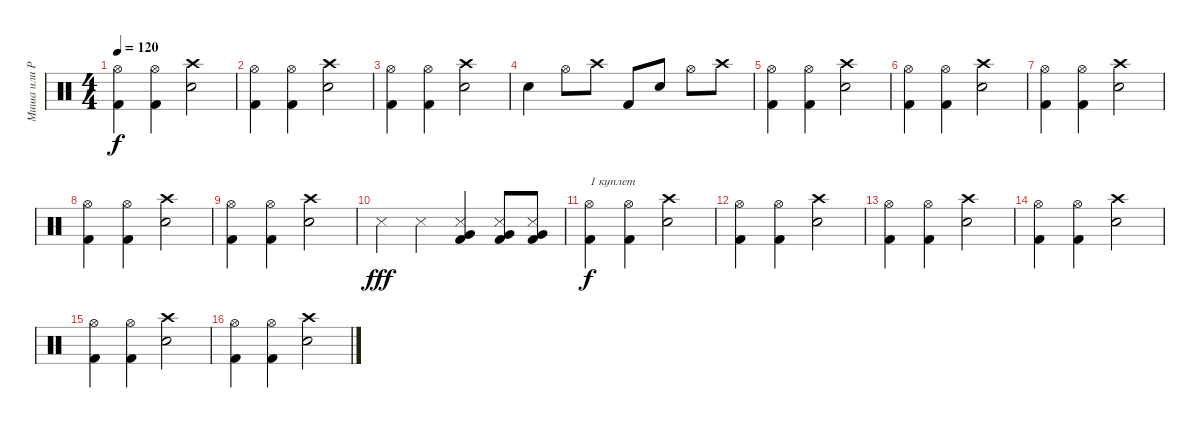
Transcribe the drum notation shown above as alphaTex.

\track ("Миша или Рома" "Миша или Р") {instrument percussion}
\staff {score}
\articulation defaults
\ts (4 4)
\tempo 120
\clef neutral
\ks c
("Hi-Hat (open)" "Kick (hit) 2").4{dy f} ("Hi-Hat (open)" "Kick (hit) 2").4 ("Crash high (hit)" "Snare (hit) 2").2 |
("Hi-Hat (open)" "Kick (hit) 2").4 ("Hi-Hat (open)" "Kick (hit) 2").4 ("Crash high (hit)" "Snare (hit) 2").2 |
("Hi-Hat (open)" "Kick (hit) 2").4 ("Hi-Hat (open)" "Kick (hit) 2").4 ("Crash high (hit)" "Snare (hit) 2").2 |
"Snare (hit) 2".4 "Hi-Hat (open)".8 "Crash high (hit)".8 "Kick (hit) 2".8 "Snare (hit) 2".8 "Hi-Hat (open)".8 "Crash high (hit)".8 |
("Hi-Hat (open)" "Kick (hit) 2").4 ("Hi-Hat (open)" "Kick (hit) 2").4 ("Crash high (hit)" "Snare (hit) 2").2 |
("Hi-Hat (open)" "Kick (hit) 2").4 ("Hi-Hat (open)" "Kick (hit) 2").4 ("Crash high (hit)" "Snare (hit) 2").2 |
("Hi-Hat (open)" "Kick (hit) 2").4 ("Hi-Hat (open)" "Kick (hit) 2").4 ("Crash high (hit)" "Snare (hit) 2").2 |
("Hi-Hat (open)" "Kick (hit) 2").4 ("Hi-Hat (open)" "Kick (hit) 2").4 ("Crash high (hit)" "Snare (hit) 2").2 |
("Hi-Hat (open)" "Kick (hit) 2").4 ("Hi-Hat (open)" "Kick (hit) 2").4 ("Crash high (hit)" "Snare (hit) 2").2 |
"Metronome (hit)".4{dy fff} "Metronome (hit)".4 ("Metronome (hit)" "Very Low Tom (hit)" "Kick (hit) 2").4 ("Metronome (hit)" "Very Low Tom (hit)" "Kick (hit) 2").8 ("Metronome (hit)" "Very Low Tom (hit)" "Kick (hit) 2").8 |
("Hi-Hat (open)" "Kick (hit) 2").4{txt "1 куплет" dy f} ("Hi-Hat (open)" "Kick (hit) 2").4 ("Crash high (hit)" "Snare (hit) 2").2 |
("Hi-Hat (open)" "Kick (hit) 2").4 ("Hi-Hat (open)" "Kick (hit) 2").4 ("Crash high (hit)" "Snare (hit) 2").2 |
("Hi-Hat (open)" "Kick (hit) 2").4 ("Hi-Hat (open)" "Kick (hit) 2").4 ("Crash high (hit)" "Snare (hit) 2").2 |
("Hi-Hat (open)" "Kick (hit) 2").4 ("Hi-Hat (open)" "Kick (hit) 2").4 ("Crash high (hit)" "Snare (hit) 2").2 |
("Hi-Hat (open)" "Kick (hit) 2").4 ("Hi-Hat (open)" "Kick (hit) 2").4 ("Crash high (hit)" "Snare (hit) 2").2 |
("Hi-Hat (open)" "Kick (hit) 2").4 ("Hi-Hat (open)" "Kick (hit) 2").4 ("Crash high (hit)" "Snare (hit) 2").2
